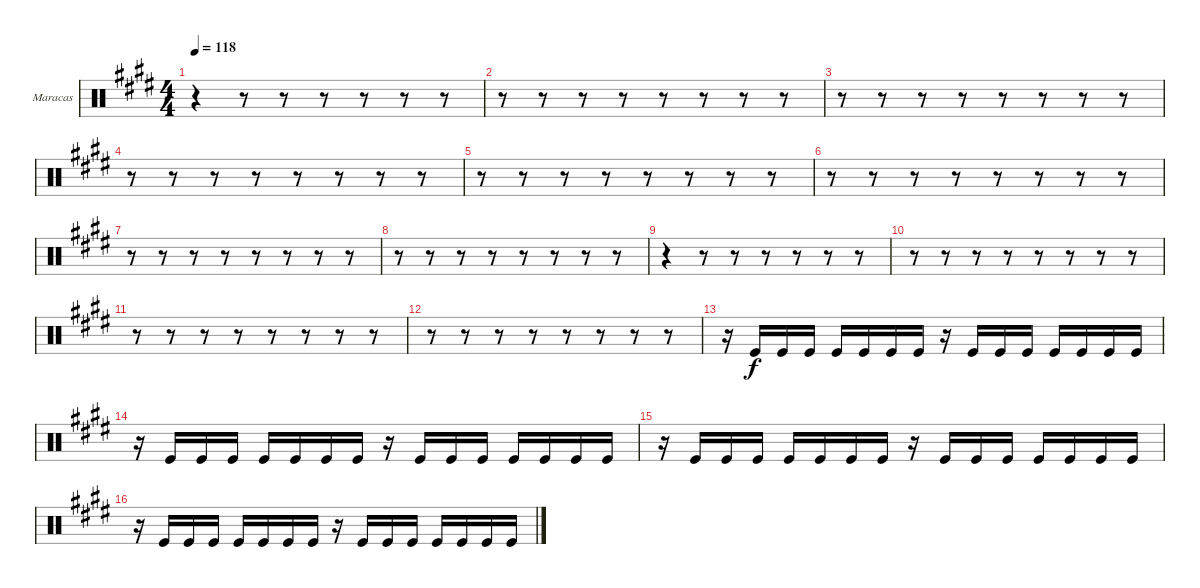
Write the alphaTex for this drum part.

\bracketExtendMode groupsimilarinstruments
\firstSystemTrackNameOrientation horizontal
\otherSystemsTrackNameOrientation horizontal
\track ("Maracas" "Maracas") {instrument percussion}
\staff {score}
\articulation defaults
\ts (4 4)
\tempo 118
\clef neutral
\ks e
r.4{dy f} r.8 r.8 r.8 r.8 r.8 r.8 |
r.8 r.8 r.8 r.8 r.8 r.8 r.8 r.8 |
r.8 r.8 r.8 r.8 r.8 r.8 r.8 r.8 |
r.8 r.8 r.8 r.8 r.8 r.8 r.8 r.8 |
r.8 r.8 r.8 r.8 r.8 r.8 r.8 r.8 |
r.8 r.8 r.8 r.8 r.8 r.8 r.8 r.8 |
r.8 r.8 r.8 r.8 r.8 r.8 r.8 r.8 |
r.8 r.8 r.8 r.8 r.8 r.8 r.8 r.8 |
r.4 r.8 r.8 r.8 r.8 r.8 r.8 |
r.8 r.8 r.8 r.8 r.8 r.8 r.8 r.8 |
r.8 r.8 r.8 r.8 r.8 r.8 r.8 r.8 |
r.8 r.8 r.8 r.8 r.8 r.8 r.8 r.8 |
r.16 "Kick (hit)".16 "Kick (hit)".16 "Kick (hit)".16 "Kick (hit)".16 "Kick (hit)".16 "Kick (hit)".16 "Kick (hit)".16 r.16 "Kick (hit)".16 "Kick (hit)".16 "Kick (hit)".16 "Kick (hit)".16 "Kick (hit)".16 "Kick (hit)".16 "Kick (hit)".16 |
r.16 "Kick (hit)".16 "Kick (hit)".16 "Kick (hit)".16 "Kick (hit)".16 "Kick (hit)".16 "Kick (hit)".16 "Kick (hit)".16 r.16 "Kick (hit)".16 "Kick (hit)".16 "Kick (hit)".16 "Kick (hit)".16 "Kick (hit)".16 "Kick (hit)".16 "Kick (hit)".16 |
r.16 "Kick (hit)".16 "Kick (hit)".16 "Kick (hit)".16 "Kick (hit)".16 "Kick (hit)".16 "Kick (hit)".16 "Kick (hit)".16 r.16 "Kick (hit)".16 "Kick (hit)".16 "Kick (hit)".16 "Kick (hit)".16 "Kick (hit)".16 "Kick (hit)".16 "Kick (hit)".16 |
r.16 "Kick (hit)".16 "Kick (hit)".16 "Kick (hit)".16 "Kick (hit)".16 "Kick (hit)".16 "Kick (hit)".16 "Kick (hit)".16 r.16 "Kick (hit)".16 "Kick (hit)".16 "Kick (hit)".16 "Kick (hit)".16 "Kick (hit)".16 "Kick (hit)".16 "Kick (hit)".16
